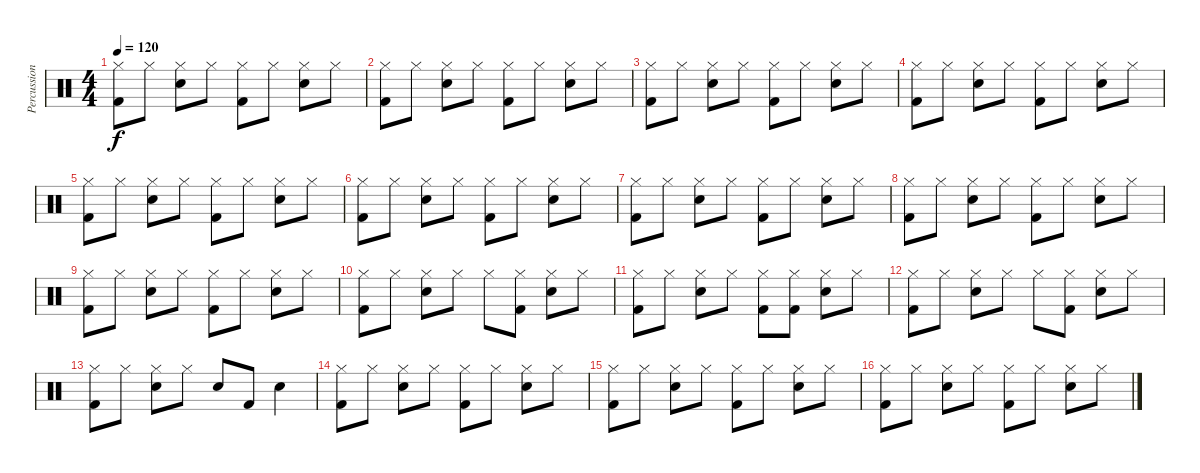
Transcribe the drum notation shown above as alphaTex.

\track ("Percussioni" "Percussion") {instrument percussion}
\staff {score}
\articulation defaults
\ts (4 4)
\tempo 120
\clef neutral
\ks c
("Hi-Hat (closed)" "Kick (hit) 2").8{dy f} "Hi-Hat (closed)".8 ("Hi-Hat (closed)" "Snare (hit) 2").8 "Hi-Hat (closed)".8 ("Hi-Hat (closed)" "Kick (hit) 2").8 "Hi-Hat (closed)".8 ("Hi-Hat (closed)" "Snare (hit) 2").8 "Hi-Hat (closed)".8 |
("Hi-Hat (closed)" "Kick (hit) 2").8 "Hi-Hat (closed)".8 ("Hi-Hat (closed)" "Snare (hit) 2").8 "Hi-Hat (closed)".8 ("Hi-Hat (closed)" "Kick (hit) 2").8 "Hi-Hat (closed)".8 ("Hi-Hat (closed)" "Snare (hit) 2").8 "Hi-Hat (closed)".8 |
("Hi-Hat (closed)" "Kick (hit) 2").8 "Hi-Hat (closed)".8 ("Hi-Hat (closed)" "Snare (hit) 2").8 "Hi-Hat (closed)".8 ("Hi-Hat (closed)" "Kick (hit) 2").8 "Hi-Hat (closed)".8 ("Hi-Hat (closed)" "Snare (hit) 2").8 "Hi-Hat (closed)".8 |
("Hi-Hat (closed)" "Kick (hit) 2").8 "Hi-Hat (closed)".8 ("Hi-Hat (closed)" "Snare (hit) 2").8 "Hi-Hat (closed)".8 ("Hi-Hat (closed)" "Kick (hit) 2").8 "Hi-Hat (closed)".8 ("Hi-Hat (closed)" "Snare (hit) 2").8 "Hi-Hat (closed)".8 |
("Hi-Hat (closed)" "Kick (hit) 2").8 "Hi-Hat (closed)".8 ("Hi-Hat (closed)" "Snare (hit) 2").8 "Hi-Hat (closed)".8 ("Hi-Hat (closed)" "Kick (hit) 2").8 "Hi-Hat (closed)".8 ("Hi-Hat (closed)" "Snare (hit) 2").8 "Hi-Hat (closed)".8 |
("Hi-Hat (closed)" "Kick (hit) 2").8 "Hi-Hat (closed)".8 ("Hi-Hat (closed)" "Snare (hit) 2").8 "Hi-Hat (closed)".8 ("Hi-Hat (closed)" "Kick (hit) 2").8 "Hi-Hat (closed)".8 ("Hi-Hat (closed)" "Snare (hit) 2").8 "Hi-Hat (closed)".8 |
("Hi-Hat (closed)" "Kick (hit) 2").8 "Hi-Hat (closed)".8 ("Hi-Hat (closed)" "Snare (hit) 2").8 "Hi-Hat (closed)".8 ("Hi-Hat (closed)" "Kick (hit) 2").8 "Hi-Hat (closed)".8 ("Hi-Hat (closed)" "Snare (hit) 2").8 "Hi-Hat (closed)".8 |
("Hi-Hat (closed)" "Kick (hit) 2").8 "Hi-Hat (closed)".8 ("Hi-Hat (closed)" "Snare (hit) 2").8 "Hi-Hat (closed)".8 ("Hi-Hat (closed)" "Kick (hit) 2").8 "Hi-Hat (closed)".8 ("Hi-Hat (closed)" "Snare (hit) 2").8 "Hi-Hat (closed)".8 |
("Hi-Hat (closed)" "Kick (hit) 2").8 "Hi-Hat (closed)".8 ("Hi-Hat (closed)" "Snare (hit) 2").8 "Hi-Hat (closed)".8 ("Hi-Hat (closed)" "Kick (hit) 2").8 "Hi-Hat (closed)".8 ("Hi-Hat (closed)" "Snare (hit) 2").8 "Hi-Hat (closed)".8 |
("Hi-Hat (closed)" "Kick (hit) 2").8 "Hi-Hat (closed)".8 ("Hi-Hat (closed)" "Snare (hit) 2").8 "Hi-Hat (closed)".8 "Hi-Hat (closed)".8 ("Hi-Hat (closed)" "Kick (hit) 2").8 ("Hi-Hat (closed)" "Snare (hit) 2").8 "Hi-Hat (closed)".8 |
("Hi-Hat (closed)" "Kick (hit) 2").8 "Hi-Hat (closed)".8 ("Hi-Hat (closed)" "Snare (hit) 2").8 "Hi-Hat (closed)".8 ("Hi-Hat (closed)" "Kick (hit) 2").8 ("Hi-Hat (closed)" "Kick (hit) 2").8 ("Hi-Hat (closed)" "Snare (hit) 2").8 "Hi-Hat (closed)".8 |
("Hi-Hat (closed)" "Kick (hit) 2").8 "Hi-Hat (closed)".8 ("Hi-Hat (closed)" "Snare (hit) 2").8 "Hi-Hat (closed)".8 "Hi-Hat (closed)".8 ("Hi-Hat (closed)" "Kick (hit) 2").8 ("Hi-Hat (closed)" "Snare (hit) 2").8 "Hi-Hat (closed)".8 |
("Hi-Hat (closed)" "Kick (hit) 2").8 "Hi-Hat (closed)".8 ("Hi-Hat (closed)" "Snare (hit) 2").8 "Hi-Hat (closed)".8 "Snare (hit) 2".8 "Kick (hit) 2".8 "Snare (hit) 2".4 |
("Hi-Hat (closed)" "Kick (hit) 2").8 "Hi-Hat (closed)".8 ("Hi-Hat (closed)" "Snare (hit) 2").8 "Hi-Hat (closed)".8 ("Hi-Hat (closed)" "Kick (hit) 2").8 "Hi-Hat (closed)".8 ("Hi-Hat (closed)" "Snare (hit) 2").8 "Hi-Hat (closed)".8 |
("Hi-Hat (closed)" "Kick (hit) 2").8 "Hi-Hat (closed)".8 ("Hi-Hat (closed)" "Snare (hit) 2").8 "Hi-Hat (closed)".8 ("Hi-Hat (closed)" "Kick (hit) 2").8 "Hi-Hat (closed)".8 ("Hi-Hat (closed)" "Snare (hit) 2").8 "Hi-Hat (closed)".8 |
("Hi-Hat (closed)" "Kick (hit) 2").8 "Hi-Hat (closed)".8 ("Hi-Hat (closed)" "Snare (hit) 2").8 "Hi-Hat (closed)".8 ("Hi-Hat (closed)" "Kick (hit) 2").8 "Hi-Hat (closed)".8 ("Hi-Hat (closed)" "Snare (hit) 2").8 "Hi-Hat (closed)".8
